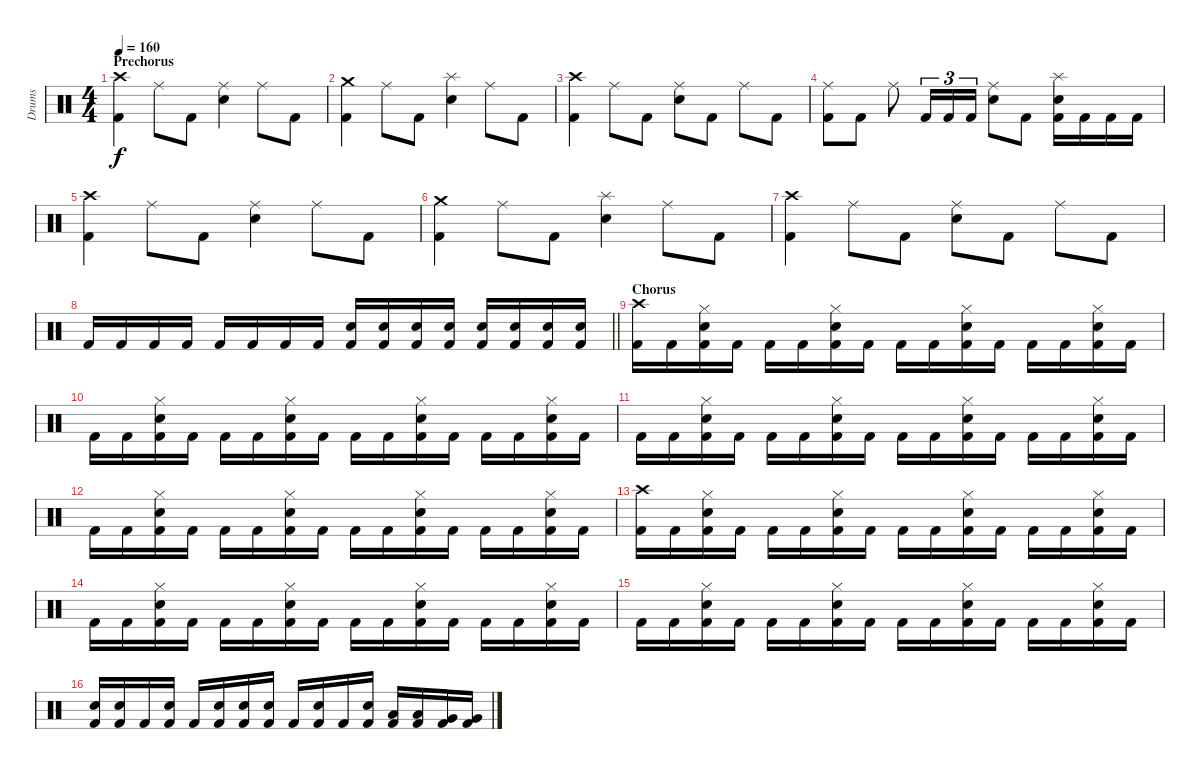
\track ("Drums" "Drums") {instrument percussion}
\staff {score}
\articulation defaults
\ts (4 4)
\section ("" "Prechorus")
\tempo 160
\clef neutral
\ks c
("Kick (hit) 2" "Crash high (hit)").4{dy f} "Ride (middle)".8 "Kick (hit) 2".8 ("Ride (middle)" "Electric Snare (hit)").4 "Ride (middle)".8 "Kick (hit) 2".8 |
("Kick (hit) 2" "Crash medium (hit)").4 "Ride (middle)".8 "Kick (hit) 2".8 ("Splash (hit)" "Electric Snare (hit)").4 "Ride (middle)".8 "Kick (hit) 2".8 |
("Kick (hit) 2" "Crash high (hit)").4 "Ride (middle)".8 "Kick (hit) 2".8 ("Ride (middle)" "Electric Snare (hit)").8 "Kick (hit) 2".8 "Ride (middle)".8 "Kick (hit) 2".8 |
("Kick (hit) 2" "Ride (middle)").8 "Kick (hit) 2".8 "Ride (middle)".8 "Kick (hit) 2".16{tu (3 2)} "Kick (hit) 2".16{tu (3 2)} "Kick (hit) 2".16{tu (3 2)} ("Ride (middle)" "Electric Snare (hit)").8 "Kick (hit) 2".8 ("Kick (hit) 2" "Splash (hit)" "Electric Snare (hit)").16 "Kick (hit) 2".16 "Kick (hit) 2".16 "Kick (hit) 2".16 |
("Kick (hit) 2" "Crash high (hit)").4 "Ride (middle)".8 "Kick (hit) 2".8 ("Ride (middle)" "Electric Snare (hit)").4 "Ride (middle)".8 "Kick (hit) 2".8 |
("Kick (hit) 2" "Crash medium (hit)").4 "Ride (middle)".8 "Kick (hit) 2".8 ("Splash (hit)" "Electric Snare (hit)").4 "Ride (middle)".8 "Kick (hit) 2".8 |
("Kick (hit) 2" "Crash high (hit)").4 "Ride (middle)".8 "Kick (hit) 2".8 ("Ride (middle)" "Electric Snare (hit)").8 "Kick (hit) 2".8 "Ride (middle)".8 "Kick (hit) 2".8 |
\barLineRight lightlight "Kick (hit) 2".16 "Kick (hit) 2".16 "Kick (hit) 2".16 "Kick (hit) 2".16 "Kick (hit) 2".16 "Kick (hit) 2".16 "Kick (hit) 2".16 "Kick (hit) 2".16
("Kick (hit) 2" "Electric Snare (hit)").16 ("Kick (hit) 2" "Electric Snare (hit)").16 ("Kick (hit) 2" "Electric Snare (hit)").16 ("Kick (hit) 2" "Electric Snare (hit)").16 ("Kick (hit) 2" "Electric Snare (hit)").16 ("Kick (hit) 2" "Electric Snare (hit)").16 ("Kick (hit) 2" "Electric Snare (hit)").16 ("Kick (hit) 2" "Electric Snare (hit)").16 |
\section ("" "Chorus")
("Kick (hit) 2" "Crash high (hit)").16 "Kick (hit) 2".16 ("Kick (hit) 2" "Hi-Hat (closed)" "Electric Snare (hit)").16 "Kick (hit) 2".16 "Kick (hit) 2".16 "Kick (hit) 2".16 ("Kick (hit) 2" "Hi-Hat (closed)" "Electric Snare (hit)").16 "Kick (hit) 2".16 "Kick (hit) 2".16 "Kick (hit) 2".16 ("Kick (hit) 2" "Hi-Hat (closed)" "Electric Snare (hit)").16 "Kick (hit) 2".16 "Kick (hit) 2".16 "Kick (hit) 2".16 ("Kick (hit) 2" "Hi-Hat (closed)" "Electric Snare (hit)").16 "Kick (hit) 2".16 |
"Kick (hit) 2".16 "Kick (hit) 2".16 ("Kick (hit) 2" "Hi-Hat (closed)" "Electric Snare (hit)").16 "Kick (hit) 2".16 "Kick (hit) 2".16 "Kick (hit) 2".16 ("Kick (hit) 2" "Hi-Hat (closed)" "Electric Snare (hit)").16 "Kick (hit) 2".16 "Kick (hit) 2".16 "Kick (hit) 2".16 ("Kick (hit) 2" "Hi-Hat (closed)" "Electric Snare (hit)").16 "Kick (hit) 2".16 "Kick (hit) 2".16 "Kick (hit) 2".16 ("Kick (hit) 2" "Hi-Hat (closed)" "Electric Snare (hit)").16 "Kick (hit) 2".16 |
"Kick (hit) 2".16 "Kick (hit) 2".16 ("Kick (hit) 2" "Hi-Hat (closed)" "Electric Snare (hit)").16 "Kick (hit) 2".16 "Kick (hit) 2".16 "Kick (hit) 2".16 ("Kick (hit) 2" "Hi-Hat (closed)" "Electric Snare (hit)").16 "Kick (hit) 2".16 "Kick (hit) 2".16 "Kick (hit) 2".16 ("Kick (hit) 2" "Hi-Hat (closed)" "Electric Snare (hit)").16 "Kick (hit) 2".16 "Kick (hit) 2".16 "Kick (hit) 2".16 ("Kick (hit) 2" "Hi-Hat (closed)" "Electric Snare (hit)").16 "Kick (hit) 2".16 |
"Kick (hit) 2".16 "Kick (hit) 2".16 ("Kick (hit) 2" "Hi-Hat (closed)" "Electric Snare (hit)").16 "Kick (hit) 2".16 "Kick (hit) 2".16 "Kick (hit) 2".16 ("Kick (hit) 2" "Hi-Hat (closed)" "Electric Snare (hit)").16 "Kick (hit) 2".16 "Kick (hit) 2".16 "Kick (hit) 2".16 ("Kick (hit) 2" "Hi-Hat (closed)" "Electric Snare (hit)").16 "Kick (hit) 2".16 "Kick (hit) 2".16 "Kick (hit) 2".16 ("Kick (hit) 2" "Hi-Hat (closed)" "Electric Snare (hit)").16 "Kick (hit) 2".16 |
("Kick (hit) 2" "Crash high (hit)").16 "Kick (hit) 2".16 ("Kick (hit) 2" "Hi-Hat (closed)" "Electric Snare (hit)").16 "Kick (hit) 2".16 "Kick (hit) 2".16 "Kick (hit) 2".16 ("Kick (hit) 2" "Hi-Hat (closed)" "Electric Snare (hit)").16 "Kick (hit) 2".16 "Kick (hit) 2".16 "Kick (hit) 2".16 ("Kick (hit) 2" "Hi-Hat (closed)" "Electric Snare (hit)").16 "Kick (hit) 2".16 "Kick (hit) 2".16 "Kick (hit) 2".16 ("Kick (hit) 2" "Hi-Hat (closed)" "Electric Snare (hit)").16 "Kick (hit) 2".16 |
"Kick (hit) 2".16 "Kick (hit) 2".16 ("Kick (hit) 2" "Hi-Hat (closed)" "Electric Snare (hit)").16 "Kick (hit) 2".16 "Kick (hit) 2".16 "Kick (hit) 2".16 ("Kick (hit) 2" "Hi-Hat (closed)" "Electric Snare (hit)").16 "Kick (hit) 2".16 "Kick (hit) 2".16 "Kick (hit) 2".16 ("Kick (hit) 2" "Hi-Hat (closed)" "Electric Snare (hit)").16 "Kick (hit) 2".16 "Kick (hit) 2".16 "Kick (hit) 2".16 ("Kick (hit) 2" "Hi-Hat (closed)" "Electric Snare (hit)").16 "Kick (hit) 2".16 |
"Kick (hit) 2".16 "Kick (hit) 2".16 ("Kick (hit) 2" "Hi-Hat (closed)" "Electric Snare (hit)").16 "Kick (hit) 2".16 "Kick (hit) 2".16 "Kick (hit) 2".16 ("Kick (hit) 2" "Hi-Hat (closed)" "Electric Snare (hit)").16 "Kick (hit) 2".16 "Kick (hit) 2".16 "Kick (hit) 2".16 ("Kick (hit) 2" "Hi-Hat (closed)" "Electric Snare (hit)").16 "Kick (hit) 2".16 "Kick (hit) 2".16 "Kick (hit) 2".16 ("Kick (hit) 2" "Hi-Hat (closed)" "Electric Snare (hit)").16 "Kick (hit) 2".16 |
("Kick (hit) 2" "Electric Snare (hit)").16 ("Kick (hit) 2" "Electric Snare (hit)").16 "Kick (hit) 2".16 ("Kick (hit) 2" "Electric Snare (hit)").16 "Kick (hit) 2".16 ("Kick (hit) 2" "Electric Snare (hit)").16 ("Kick (hit) 2" "Electric Snare (hit)").16 ("Kick (hit) 2" "Electric Snare (hit)").16 "Kick (hit) 2".16 ("Kick (hit) 2" "Electric Snare (hit)").16 "Kick (hit) 2".16 ("Kick (hit) 2" "Electric Snare (hit)").16 ("Kick (hit) 2" "Low Tom (hit)").16 ("Kick (hit) 2" "Low Tom (hit)").16 ("Kick (hit) 2" "Very Low Tom (hit)").16 ("Kick (hit) 2" "Very Low Tom (hit)").16
